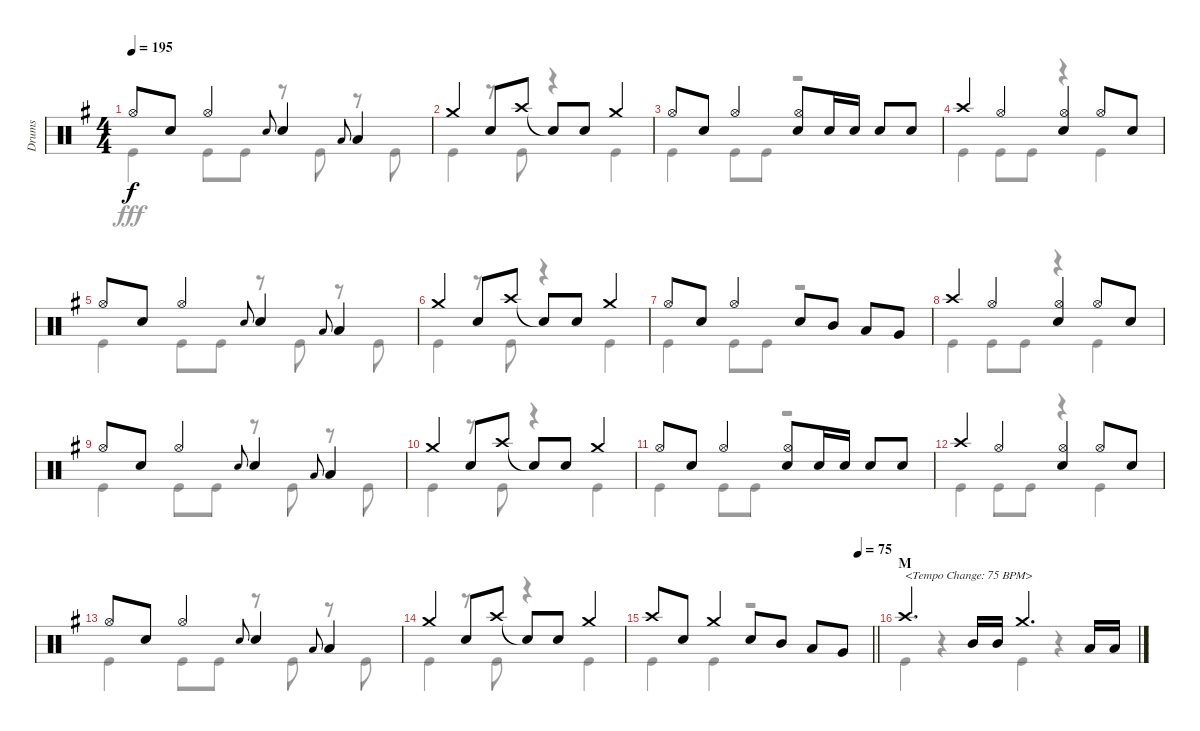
\track ("Drums" "Drums") {instrument percussion}
\staff {score}
\articulation defaults
\voice
\ts (4 4)
\tempo 195
\clef neutral
\ks g "Hi-Hat (open)".8{dy f} "Snare (hit) 2".8 "Hi-Hat (open)".4 "Snare (hit) 2".8{gr onbeat} "Snare (hit) 2".4 "Low Tom (hit)".8{gr onbeat} "Low Tom (hit)".4
|
"Crash medium (hit)".4 "Snare (hit) 2".8 "Crash high (hit)".8 "Snare (hit)"{t}.8 "Snare (hit) 2".8 "Crash medium (hit)".4 |
"Hi-Hat (open)".8 "Snare (hit) 2".8 "Hi-Hat (open)".4 ("Hi-Hat (open)" "Snare (hit) 2").8 "Snare (hit) 2".16 "Snare (hit) 2".16 "Snare (hit) 2".8 "Snare (hit) 2".8 |
"Crash high (hit)".4 "Hi-Hat (open)".4 ("Hi-Hat (open)" "Snare (hit) 2").4 "Hi-Hat (open)".8 "Snare (hit) 2".8 |
"Hi-Hat (open)".8 "Snare (hit) 2".8 "Hi-Hat (open)".4 "Snare (hit) 2".8{gr onbeat} "Snare (hit) 2".4 "Low Tom (hit)".8{gr onbeat} "Low Tom (hit)".4 |
"Crash medium (hit)".4 "Snare (hit) 2".8 "Crash high (hit)".8 "Snare (hit)"{t}.8 "Snare (hit) 2".8 "Crash medium (hit)".4 |
"Hi-Hat (open)".8 "Snare (hit) 2".8 "Hi-Hat (open)".4 "Snare (hit) 2".8 "Mid Tom (hit)".8 "Low Tom (hit)".8 "Very Low Tom (hit)".8 |
"Crash high (hit)".4 "Hi-Hat (open)".4 ("Hi-Hat (open)" "Snare (hit) 2").4 "Hi-Hat (open)".8 "Snare (hit) 2".8 |
"Hi-Hat (open)".8 "Snare (hit) 2".8 "Hi-Hat (open)".4 "Snare (hit) 2".8{gr onbeat} "Snare (hit) 2".4 "Low Tom (hit)".8{gr onbeat} "Low Tom (hit)".4 |
"Crash medium (hit)".4 "Snare (hit) 2".8 "Crash high (hit)".8 "Snare (hit)"{t}.8 "Snare (hit) 2".8 "Crash medium (hit)".4 |
"Hi-Hat (open)".8 "Snare (hit) 2".8 "Hi-Hat (open)".4 ("Hi-Hat (open)" "Snare (hit) 2").8 "Snare (hit) 2".16 "Snare (hit) 2".16 "Snare (hit) 2".8 "Snare (hit) 2".8 |
"Crash high (hit)".4 "Hi-Hat (open)".4 ("Hi-Hat (open)" "Snare (hit) 2").4 "Hi-Hat (open)".8 "Snare (hit) 2".8 |
"Hi-Hat (open)".8 "Snare (hit) 2".8 "Hi-Hat (open)".4 "Snare (hit) 2".8{gr onbeat} "Snare (hit) 2".4 "Low Tom (hit)".8{gr onbeat} "Low Tom (hit)".4 |
"Crash medium (hit)".4 "Snare (hit) 2".8 "Crash high (hit)".8 "Snare (hit)"{t}.8 "Snare (hit) 2".8 "Crash medium (hit)".4 |
\tempo (75 0.9375)
\barLineRight lightlight "Crash high (hit)".8 "Snare (hit) 2".8 "Crash medium (hit)".4 "Snare (hit) 2".8 "Mid Tom (hit)".8 "Low Tom (hit)".8 "Very Low Tom (hit)".8
|
\section ("" "M")
"Crash high (hit)".4{d txt "<Tempo Change: 75 BPM>"} "Mid Tom (hit)".16 "Mid Tom (hit)".16 "Crash medium (hit)".4{d} "Low Tom (hit)".16 "Low Tom (hit)".16
\voice
\clef neutral
\ottava regular
\simile none
\ks g "Kick (hit)".4{dy fff} "Kick (hit)".8 "Kick (hit)".8
r.8 "Kick (hit)".8 r.8 "Kick (hit)".8 |
"Kick (hit)".4 r.8 "Kick (hit)".8 r.4 "Kick (hit)".4 |
"Kick (hit)".4 "Kick (hit)".8 "Kick (hit)".8 r.2 |
"Kick (hit)".4 "Kick (hit)".8 "Kick (hit)".8 r.4 "Kick (hit)".4 |
"Kick (hit)".4 "Kick (hit)".8 "Kick (hit)".8 r.8 "Kick (hit)".8 r.8 "Kick (hit)".8 |
"Kick (hit)".4 r.8 "Kick (hit)".8 r.4 "Kick (hit)".4 |
"Kick (hit)".4 "Kick (hit)".8 "Kick (hit)".8 r.2 |
"Kick (hit)".4 "Kick (hit)".8 "Kick (hit)".8 r.4 "Kick (hit)".4 |
"Kick (hit)".4 "Kick (hit)".8 "Kick (hit)".8 r.8 "Kick (hit)".8 r.8 "Kick (hit)".8 |
"Kick (hit)".4 r.8 "Kick (hit)".8 r.4 "Kick (hit)".4 |
"Kick (hit)".4 "Kick (hit)".8 "Kick (hit)".8 r.2 |
"Kick (hit)".4 "Kick (hit)".8 "Kick (hit)".8 r.4 "Kick (hit)".4 |
"Kick (hit)".4 "Kick (hit)".8 "Kick (hit)".8 r.8 "Kick (hit)".8 r.8 "Kick (hit)".8 |
"Kick (hit)".4 r.8 "Kick (hit)".8 r.4 "Kick (hit)".4 |
\barLineRight lightlight "Kick (hit)".4 "Kick (hit)".4
r.2 |
"Kick (hit)".4 r.4 "Kick (hit)".4 r.4
